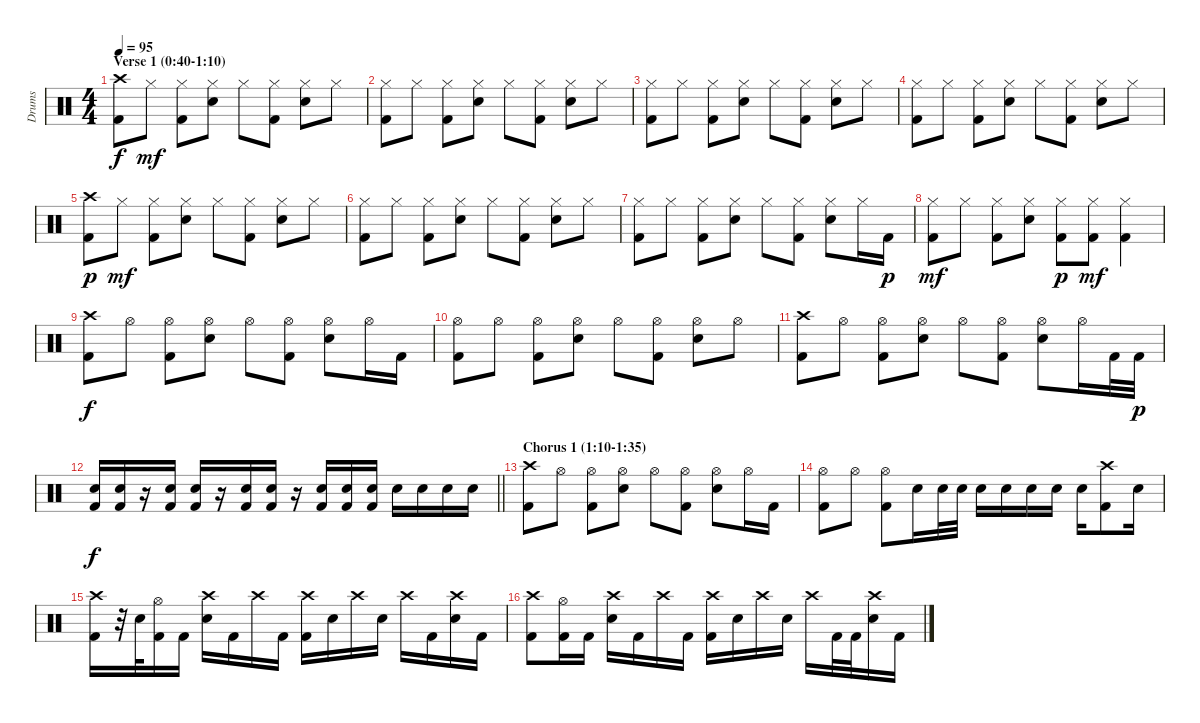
\track ("Drums" "Drums") {instrument percussion}
\staff {score}
\articulation defaults
\ts (4 4)
\section ("" "Verse 1 (0:40-1:10)")
\tempo 95
\clef neutral
\ks c
("Crash high (hit)" "Kick (hit) 2").8{dy f} "Hi-Hat (closed)".8{dy mf} ("Hi-Hat (closed)" "Kick (hit) 2").8 ("Hi-Hat (closed)" "Snare (hit) 2").8 "Hi-Hat (closed)".8 ("Hi-Hat (closed)" "Kick (hit) 2").8 ("Hi-Hat (closed)" "Snare (hit) 2").8 "Hi-Hat (closed)".8 |
("Hi-Hat (closed)" "Kick (hit) 2").8 "Hi-Hat (closed)".8 ("Hi-Hat (closed)" "Kick (hit) 2").8 ("Hi-Hat (closed)" "Snare (hit) 2").8 "Hi-Hat (closed)".8 ("Hi-Hat (closed)" "Kick (hit) 2").8 ("Hi-Hat (closed)" "Snare (hit) 2").8 "Hi-Hat (closed)".8 |
("Hi-Hat (closed)" "Kick (hit) 2").8 "Hi-Hat (closed)".8 ("Hi-Hat (closed)" "Kick (hit) 2").8 ("Hi-Hat (closed)" "Snare (hit) 2").8 "Hi-Hat (closed)".8 ("Hi-Hat (closed)" "Kick (hit) 2").8 ("Hi-Hat (closed)" "Snare (hit) 2").8 "Hi-Hat (closed)".8 |
("Hi-Hat (closed)" "Kick (hit) 2").8 "Hi-Hat (closed)".8 ("Hi-Hat (closed)" "Kick (hit) 2").8 ("Hi-Hat (closed)" "Snare (hit) 2").8 "Hi-Hat (closed)".8 ("Hi-Hat (closed)" "Kick (hit) 2").8 ("Hi-Hat (closed)" "Snare (hit) 2").8 "Hi-Hat (closed)".8 |
("Crash high (hit)" "Kick (hit) 2").8{dy p} "Hi-Hat (closed)".8{dy mf} ("Hi-Hat (closed)" "Kick (hit) 2").8 ("Hi-Hat (closed)" "Snare (hit) 2").8 "Hi-Hat (closed)".8 ("Hi-Hat (closed)" "Kick (hit) 2").8 ("Hi-Hat (closed)" "Snare (hit) 2").8 "Hi-Hat (closed)".8 |
("Hi-Hat (closed)" "Kick (hit) 2").8 "Hi-Hat (closed)".8 ("Hi-Hat (closed)" "Kick (hit) 2").8 ("Hi-Hat (closed)" "Snare (hit) 2").8 "Hi-Hat (closed)".8 ("Hi-Hat (closed)" "Kick (hit) 2").8 ("Hi-Hat (closed)" "Snare (hit) 2").8 "Hi-Hat (closed)".8 |
("Hi-Hat (closed)" "Kick (hit) 2").8 "Hi-Hat (closed)".8 ("Hi-Hat (closed)" "Kick (hit) 2").8 ("Hi-Hat (closed)" "Snare (hit) 2").8 "Hi-Hat (closed)".8 ("Hi-Hat (closed)" "Kick (hit) 2").8 ("Hi-Hat (closed)" "Snare (hit) 2").8 "Hi-Hat (closed)".16 "Kick (hit) 2".16{dy p} |
("Hi-Hat (closed)" "Kick (hit) 2").8{dy mf} "Hi-Hat (closed)".8 ("Hi-Hat (closed)" "Kick (hit) 2").8 ("Hi-Hat (closed)" "Snare (hit) 2").8 ("Hi-Hat (closed)" "Kick (hit) 2").8{dy p} ("Hi-Hat (closed)" "Kick (hit) 2").8{dy mf} ("Hi-Hat (closed)" "Kick (hit) 2").4 |
("Kick (hit) 2" "Crash high (hit)").8{dy f} "Hi-Hat (open)".8 ("Hi-Hat (open)" "Kick (hit) 2").8 ("Hi-Hat (open)" "Snare (hit) 2").8 "Hi-Hat (open)".8 ("Hi-Hat (open)" "Kick (hit) 2").8 ("Hi-Hat (open)" "Snare (hit) 2").8 "Hi-Hat (open)".16 "Kick (hit) 2".16 |
("Kick (hit) 2" "Hi-Hat (open)").8 "Hi-Hat (open)".8 ("Hi-Hat (open)" "Kick (hit) 2").8 ("Hi-Hat (open)" "Snare (hit) 2").8 "Hi-Hat (open)".8 ("Hi-Hat (open)" "Kick (hit) 2").8 ("Hi-Hat (open)" "Snare (hit) 2").8 "Hi-Hat (open)".8 |
("Kick (hit) 2" "Crash high (hit)").8 "Hi-Hat (open)".8 ("Hi-Hat (open)" "Kick (hit) 2").8 ("Hi-Hat (open)" "Snare (hit) 2").8 "Hi-Hat (open)".8 ("Hi-Hat (open)" "Kick (hit) 2").8 ("Hi-Hat (open)" "Snare (hit) 2").8 "Hi-Hat (open)".16 "Kick (hit) 2".32 "Kick (hit) 2".32{dy p} |
\barLineRight lightlight
("Kick (hit) 2" "Snare (hit) 2").16{dy f} ("Kick (hit) 2" "Snare (hit) 2").16 r.16 ("Kick (hit) 2" "Snare (hit) 2").16 ("Kick (hit) 2" "Snare (hit) 2").16 r.16 ("Kick (hit) 2" "Snare (hit) 2").16 ("Kick (hit) 2" "Snare (hit) 2").16 r.16 ("Kick (hit) 2" "Snare (hit) 2").16 ("Kick (hit) 2" "Snare (hit) 2").16 ("Kick (hit) 2" "Snare (hit) 2").16 "Snare (hit) 2".16 "Snare (hit) 2".16 "Snare (hit) 2".16 "Snare (hit) 2".16 |
\section ("" "Chorus 1 (1:10-1:35)")
("Crash high (hit)" "Kick (hit) 2").8 "Hi-Hat (open)".8 ("Hi-Hat (open)" "Kick (hit) 2").8 ("Hi-Hat (open)" "Snare (hit) 2").8 "Hi-Hat (open)".8 ("Hi-Hat (open)" "Kick (hit) 2").8 ("Hi-Hat (open)" "Snare (hit) 2").8 "Hi-Hat (open)".16 "Kick (hit) 2".16 |
("Hi-Hat (open)" "Kick (hit) 2").8 "Hi-Hat (open)".8 ("Hi-Hat (open)" "Kick (hit) 2").8 "Snare (hit) 2".16 "Snare (hit) 2".32 "Snare (hit) 2".32 "Snare (hit) 2".16 "Snare (hit) 2".16 "Snare (hit) 2".16 "Snare (hit) 2".16 "Snare (hit) 2".16 ("Crash high (hit)" "Kick (hit) 2").8 "Snare (hit) 2".16 |
("Crash high (hit)" "Kick (hit) 2").16 r.32 "Snare (hit) 2".32 ("Hi-Hat (open)" "Kick (hit) 2").16 "Kick (hit) 2".16 ("Crash high (hit)" "Snare (hit) 2").16 "Kick (hit) 2".16 "Crash high (hit)".16 "Kick (hit) 2".16 ("Crash high (hit)" "Kick (hit) 2").16 "Snare (hit) 2".16 "Crash high (hit)".16 "Snare (hit) 2".16 "Crash high (hit)".16 "Kick (hit) 2".16 ("Crash high (hit)" "Snare (hit) 2").16 "Kick (hit) 2".16 |
("Crash high (hit)" "Kick (hit) 2").8 ("Hi-Hat (open)" "Kick (hit) 2").16 "Kick (hit) 2".16 ("Crash high (hit)" "Snare (hit) 2").16 "Kick (hit) 2".16 "Crash high (hit)".16 "Kick (hit) 2".16 ("Crash high (hit)" "Kick (hit) 2").16 "Snare (hit) 2".16 "Crash high (hit)".16 "Snare (hit) 2".16 "Crash high (hit)".16 "Kick (hit) 2".32 "Kick (hit) 2".32 ("Crash high (hit)" "Snare (hit) 2").16 "Kick (hit) 2".16
